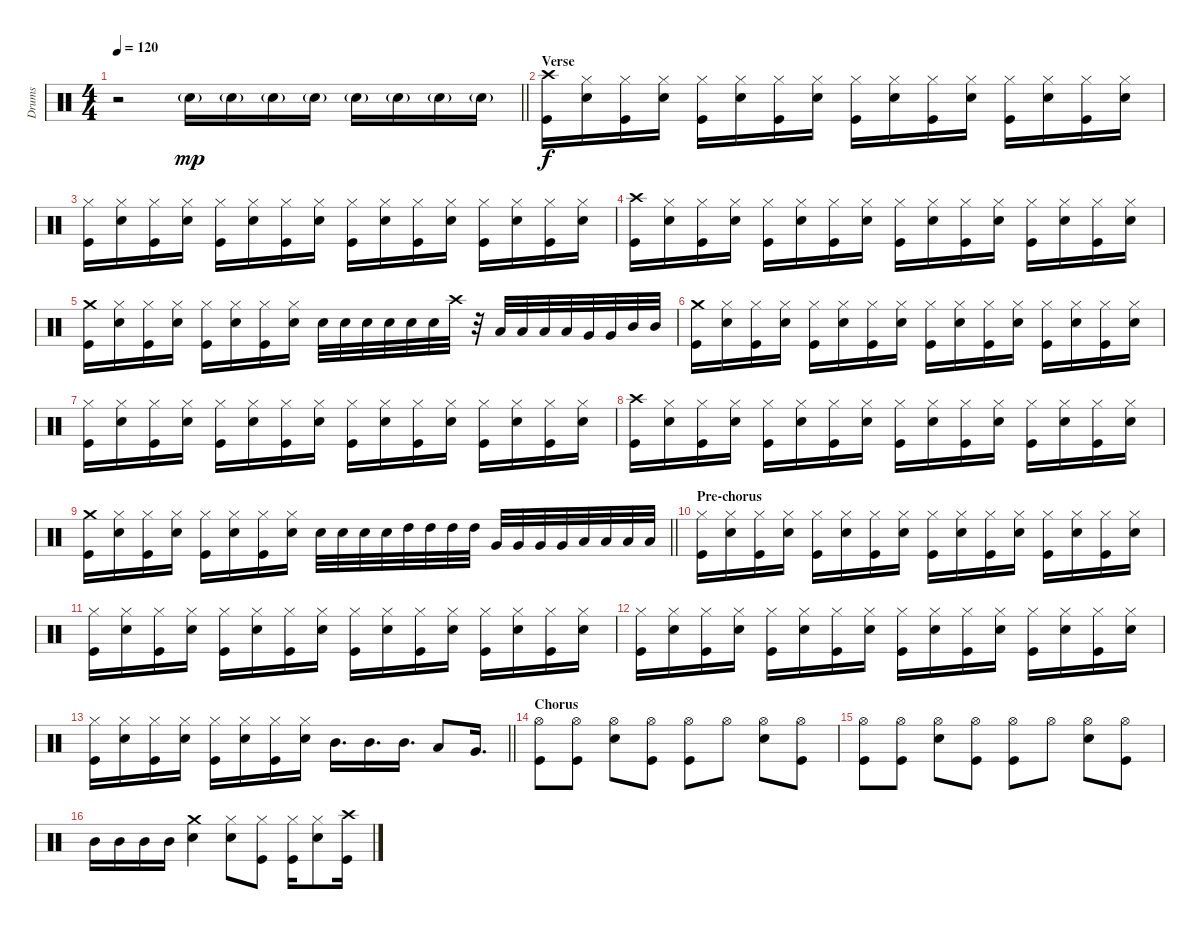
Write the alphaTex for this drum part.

\track ("Drums" "Drums") {instrument percussion}
\staff {score}
\articulation defaults
\ts (4 4)
\tempo 120
\clef neutral
\barLineRight lightlight
\ks c
r.2{dy f} "Electric Snare (hit)"{g}.16{dy mp} "Electric Snare (hit)"{g}.16 "Electric Snare (hit)"{g}.16 "Electric Snare (hit)"{g}.16 "Electric Snare (hit)"{g}.16 "Electric Snare (hit)"{g}.16 "Electric Snare (hit)"{g}.16 "Electric Snare (hit)"{g}.16 |
\section ("" "Verse")
("Crash high (hit)" "Kick (hit)").16{dy f} ("Hi-Hat (closed)" "Electric Snare (hit)").16 ("Hi-Hat (closed)" "Kick (hit)").16 ("Hi-Hat (closed)" "Electric Snare (hit)").16 ("Hi-Hat (closed)" "Kick (hit)").16 ("Hi-Hat (closed)" "Electric Snare (hit)").16 ("Hi-Hat (closed)" "Kick (hit)").16 ("Hi-Hat (closed)" "Electric Snare (hit)").16 ("Hi-Hat (closed)" "Kick (hit)").16 ("Hi-Hat (closed)" "Electric Snare (hit)").16 ("Hi-Hat (closed)" "Kick (hit)").16 ("Hi-Hat (closed)" "Electric Snare (hit)").16 ("Hi-Hat (closed)" "Kick (hit)").16 ("Hi-Hat (closed)" "Electric Snare (hit)").16 ("Hi-Hat (closed)" "Kick (hit)").16 ("Hi-Hat (closed)" "Electric Snare (hit)").16 |
("Hi-Hat (closed)" "Kick (hit)").16 ("Hi-Hat (closed)" "Electric Snare (hit)").16 ("Hi-Hat (closed)" "Kick (hit)").16 ("Hi-Hat (closed)" "Electric Snare (hit)").16 ("Hi-Hat (closed)" "Kick (hit)").16 ("Hi-Hat (closed)" "Electric Snare (hit)").16 ("Hi-Hat (closed)" "Kick (hit)").16 ("Hi-Hat (closed)" "Electric Snare (hit)").16 ("Hi-Hat (closed)" "Kick (hit)").16 ("Hi-Hat (closed)" "Electric Snare (hit)").16 ("Hi-Hat (closed)" "Kick (hit)").16 ("Hi-Hat (closed)" "Electric Snare (hit)").16 ("Hi-Hat (closed)" "Kick (hit)").16 ("Hi-Hat (closed)" "Electric Snare (hit)").16 ("Hi-Hat (closed)" "Kick (hit)").16 ("Hi-Hat (closed)" "Electric Snare (hit)").16 |
("Crash high (hit)" "Kick (hit)").16 ("Hi-Hat (closed)" "Electric Snare (hit)").16 ("Hi-Hat (closed)" "Kick (hit)").16 ("Hi-Hat (closed)" "Electric Snare (hit)").16 ("Hi-Hat (closed)" "Kick (hit)").16 ("Hi-Hat (closed)" "Electric Snare (hit)").16 ("Hi-Hat (closed)" "Kick (hit)").16 ("Hi-Hat (closed)" "Electric Snare (hit)").16 ("Hi-Hat (closed)" "Kick (hit)").16 ("Hi-Hat (closed)" "Electric Snare (hit)").16 ("Hi-Hat (closed)" "Kick (hit)").16 ("Hi-Hat (closed)" "Electric Snare (hit)").16 ("Hi-Hat (closed)" "Kick (hit)").16 ("Hi-Hat (closed)" "Electric Snare (hit)").16 ("Hi-Hat (closed)" "Kick (hit)").16 ("Hi-Hat (closed)" "Electric Snare (hit)").16 |
("Crash medium (hit)" "Kick (hit)").16 ("Hi-Hat (closed)" "Electric Snare (hit)").16 ("Hi-Hat (closed)" "Kick (hit)").16 ("Hi-Hat (closed)" "Electric Snare (hit)").16 ("Hi-Hat (closed)" "Kick (hit)").16 ("Hi-Hat (closed)" "Electric Snare (hit)").16 ("Hi-Hat (closed)" "Kick (hit)").16 ("Hi-Hat (closed)" "Electric Snare (hit)").16 "Electric Snare (hit)".32 "Electric Snare (hit)".32 "Electric Snare (hit)".32 "Electric Snare (hit)".32 "Electric Snare (hit)".32 "Electric Snare (hit)".32 "Crash high (hit)".32 r.32 "Low Tom (hit)".32 "Low Tom (hit)".32 "Low Tom (hit)".32 "Low Tom (hit)".32 "Very Low Tom (hit)".32 "Very Low Tom (hit)".32 "Mid Tom (hit)".32 "Mid Tom (hit)".32 |
("Crash medium (hit)" "Kick (hit)").16 ("Hi-Hat (closed)" "Electric Snare (hit)").16 ("Hi-Hat (closed)" "Kick (hit)").16 ("Hi-Hat (closed)" "Electric Snare (hit)").16 ("Hi-Hat (closed)" "Kick (hit)").16 ("Hi-Hat (closed)" "Electric Snare (hit)").16 ("Hi-Hat (closed)" "Kick (hit)").16 ("Hi-Hat (closed)" "Electric Snare (hit)").16 ("Hi-Hat (closed)" "Kick (hit)").16 ("Hi-Hat (closed)" "Electric Snare (hit)").16 ("Hi-Hat (closed)" "Kick (hit)").16 ("Hi-Hat (closed)" "Electric Snare (hit)").16 ("Hi-Hat (closed)" "Kick (hit)").16 ("Hi-Hat (closed)" "Electric Snare (hit)").16 ("Hi-Hat (closed)" "Kick (hit)").16 ("Hi-Hat (closed)" "Electric Snare (hit)").16 |
("Hi-Hat (closed)" "Kick (hit)").16 ("Hi-Hat (closed)" "Electric Snare (hit)").16 ("Hi-Hat (closed)" "Kick (hit)").16 ("Hi-Hat (closed)" "Electric Snare (hit)").16 ("Hi-Hat (closed)" "Kick (hit)").16 ("Hi-Hat (closed)" "Electric Snare (hit)").16 ("Hi-Hat (closed)" "Kick (hit)").16 ("Hi-Hat (closed)" "Electric Snare (hit)").16 ("Hi-Hat (closed)" "Kick (hit)").16 ("Hi-Hat (closed)" "Electric Snare (hit)").16 ("Hi-Hat (closed)" "Kick (hit)").16 ("Hi-Hat (closed)" "Electric Snare (hit)").16 ("Hi-Hat (closed)" "Kick (hit)").16 ("Hi-Hat (closed)" "Electric Snare (hit)").16 ("Hi-Hat (closed)" "Kick (hit)").16 ("Hi-Hat (closed)" "Electric Snare (hit)").16 |
("Crash high (hit)" "Kick (hit)").16 ("Hi-Hat (closed)" "Electric Snare (hit)").16 ("Hi-Hat (closed)" "Kick (hit)").16 ("Hi-Hat (closed)" "Electric Snare (hit)").16 ("Hi-Hat (closed)" "Kick (hit)").16 ("Hi-Hat (closed)" "Electric Snare (hit)").16 ("Hi-Hat (closed)" "Kick (hit)").16 ("Hi-Hat (closed)" "Electric Snare (hit)").16 ("Hi-Hat (closed)" "Kick (hit)").16 ("Hi-Hat (closed)" "Electric Snare (hit)").16 ("Hi-Hat (closed)" "Kick (hit)").16 ("Hi-Hat (closed)" "Electric Snare (hit)").16 ("Hi-Hat (closed)" "Kick (hit)").16 ("Hi-Hat (closed)" "Electric Snare (hit)").16 ("Hi-Hat (closed)" "Kick (hit)").16 ("Hi-Hat (closed)" "Electric Snare (hit)").16 |
\barLineRight lightlight
("Crash medium (hit)" "Kick (hit)").16 ("Hi-Hat (closed)" "Electric Snare (hit)").16 ("Hi-Hat (closed)" "Kick (hit)").16 ("Hi-Hat (closed)" "Electric Snare (hit)").16 ("Hi-Hat (closed)" "Kick (hit)").16 ("Hi-Hat (closed)" "Electric Snare (hit)").16 ("Hi-Hat (closed)" "Kick (hit)").16 ("Hi-Hat (closed)" "Electric Snare (hit)").16 "Electric Snare (hit)".32 "Electric Snare (hit)".32 "Electric Snare (hit)".32 "Electric Snare (hit)".32 "High Tom (hit)".32 "High Tom (hit)".32 "High Tom (hit)".32 "High Tom (hit)".32 "Very Low Tom (hit)".32 "Very Low Tom (hit)".32 "Very Low Tom (hit)".32 "Very Low Tom (hit)".32 "Low Floor Tom (hit)".32 "Low Floor Tom (hit)".32 "Low Floor Tom (hit)".32 "Low Floor Tom (hit)".32 |
\section ("" "Pre-chorus")
("Hi-Hat (closed)" "Kick (hit)").16 ("Hi-Hat (closed)" "Electric Snare (hit)").16 ("Hi-Hat (closed)" "Kick (hit)").16 ("Hi-Hat (closed)" "Electric Snare (hit)").16 ("Hi-Hat (closed)" "Kick (hit)").16 ("Hi-Hat (closed)" "Electric Snare (hit)").16 ("Hi-Hat (closed)" "Kick (hit)").16 ("Hi-Hat (closed)" "Electric Snare (hit)").16 ("Hi-Hat (closed)" "Kick (hit)").16 ("Hi-Hat (closed)" "Electric Snare (hit)").16 ("Hi-Hat (closed)" "Kick (hit)").16 ("Hi-Hat (closed)" "Electric Snare (hit)").16 ("Hi-Hat (closed)" "Kick (hit)").16 ("Hi-Hat (closed)" "Electric Snare (hit)").16 ("Hi-Hat (closed)" "Kick (hit)").16 ("Hi-Hat (closed)" "Electric Snare (hit)").16 |
("Hi-Hat (closed)" "Kick (hit)").16 ("Hi-Hat (closed)" "Electric Snare (hit)").16 ("Hi-Hat (closed)" "Kick (hit)").16 ("Hi-Hat (closed)" "Electric Snare (hit)").16 ("Hi-Hat (closed)" "Kick (hit)").16 ("Hi-Hat (closed)" "Electric Snare (hit)").16 ("Hi-Hat (closed)" "Kick (hit)").16 ("Hi-Hat (closed)" "Electric Snare (hit)").16 ("Hi-Hat (closed)" "Kick (hit)").16 ("Hi-Hat (closed)" "Electric Snare (hit)").16 ("Hi-Hat (closed)" "Kick (hit)").16 ("Hi-Hat (closed)" "Electric Snare (hit)").16 ("Hi-Hat (closed)" "Kick (hit)").16 ("Hi-Hat (closed)" "Electric Snare (hit)").16 ("Hi-Hat (closed)" "Kick (hit)").16 ("Hi-Hat (closed)" "Electric Snare (hit)").16 |
("Hi-Hat (closed)" "Kick (hit)").16 ("Hi-Hat (closed)" "Electric Snare (hit)").16 ("Hi-Hat (closed)" "Kick (hit)").16 ("Hi-Hat (closed)" "Electric Snare (hit)").16 ("Hi-Hat (closed)" "Kick (hit)").16 ("Hi-Hat (closed)" "Electric Snare (hit)").16 ("Hi-Hat (closed)" "Kick (hit)").16 ("Hi-Hat (closed)" "Electric Snare (hit)").16 ("Hi-Hat (closed)" "Kick (hit)").16 ("Hi-Hat (closed)" "Electric Snare (hit)").16 ("Hi-Hat (closed)" "Kick (hit)").16 ("Hi-Hat (closed)" "Electric Snare (hit)").16 ("Hi-Hat (closed)" "Kick (hit)").16 ("Hi-Hat (closed)" "Electric Snare (hit)").16 ("Hi-Hat (closed)" "Kick (hit)").16 ("Hi-Hat (closed)" "Electric Snare (hit)").16 |
\barLineRight lightlight
("Hi-Hat (closed)" "Kick (hit)").16 ("Hi-Hat (closed)" "Electric Snare (hit)").16 ("Hi-Hat (closed)" "Kick (hit)").16 ("Hi-Hat (closed)" "Electric Snare (hit)").16 ("Hi-Hat (closed)" "Kick (hit)").16 ("Hi-Hat (closed)" "Electric Snare (hit)").16 ("Hi-Hat (closed)" "Kick (hit)").16 ("Hi-Hat (closed)" "Electric Snare (hit)").16 "Mid Tom (hit)".16{d} "Mid Tom (hit)".16{d} "Mid Tom (hit)".16{d} "Low Tom (hit)".8 "Very Low Tom (hit)".16{d} |
\section ("" "Chorus")
("Hi-Hat (open)" "Kick (hit)").8 ("Hi-Hat (open)" "Kick (hit)").8 ("Hi-Hat (open)" "Electric Snare (hit)").8 ("Hi-Hat (open)" "Kick (hit)").8 ("Hi-Hat (open)" "Kick (hit)").8 "Hi-Hat (open)".8 ("Hi-Hat (open)" "Electric Snare (hit)").8 ("Hi-Hat (open)" "Kick (hit)").8 |
("Hi-Hat (open)" "Kick (hit)").8 ("Hi-Hat (open)" "Kick (hit)").8 ("Hi-Hat (open)" "Electric Snare (hit)").8 ("Hi-Hat (open)" "Kick (hit)").8 ("Hi-Hat (open)" "Kick (hit)").8 "Hi-Hat (open)".8 ("Hi-Hat (open)" "Electric Snare (hit)").8 ("Hi-Hat (open)" "Kick (hit)").8 |
"Mid Tom (hit)".16 "Mid Tom (hit)".16 "Mid Tom (hit)".16 "Mid Tom (hit)".16 ("Crash medium (hit)" "Electric Snare (hit)").4 ("Hi-Hat (closed)" "Electric Snare (hit)").8 ("Hi-Hat (closed)" "Kick (hit)").8 ("Hi-Hat (closed)" "Kick (hit)").16 ("Hi-Hat (closed)" "Electric Snare (hit)").8 ("Crash high (hit)" "Kick (hit)").16
